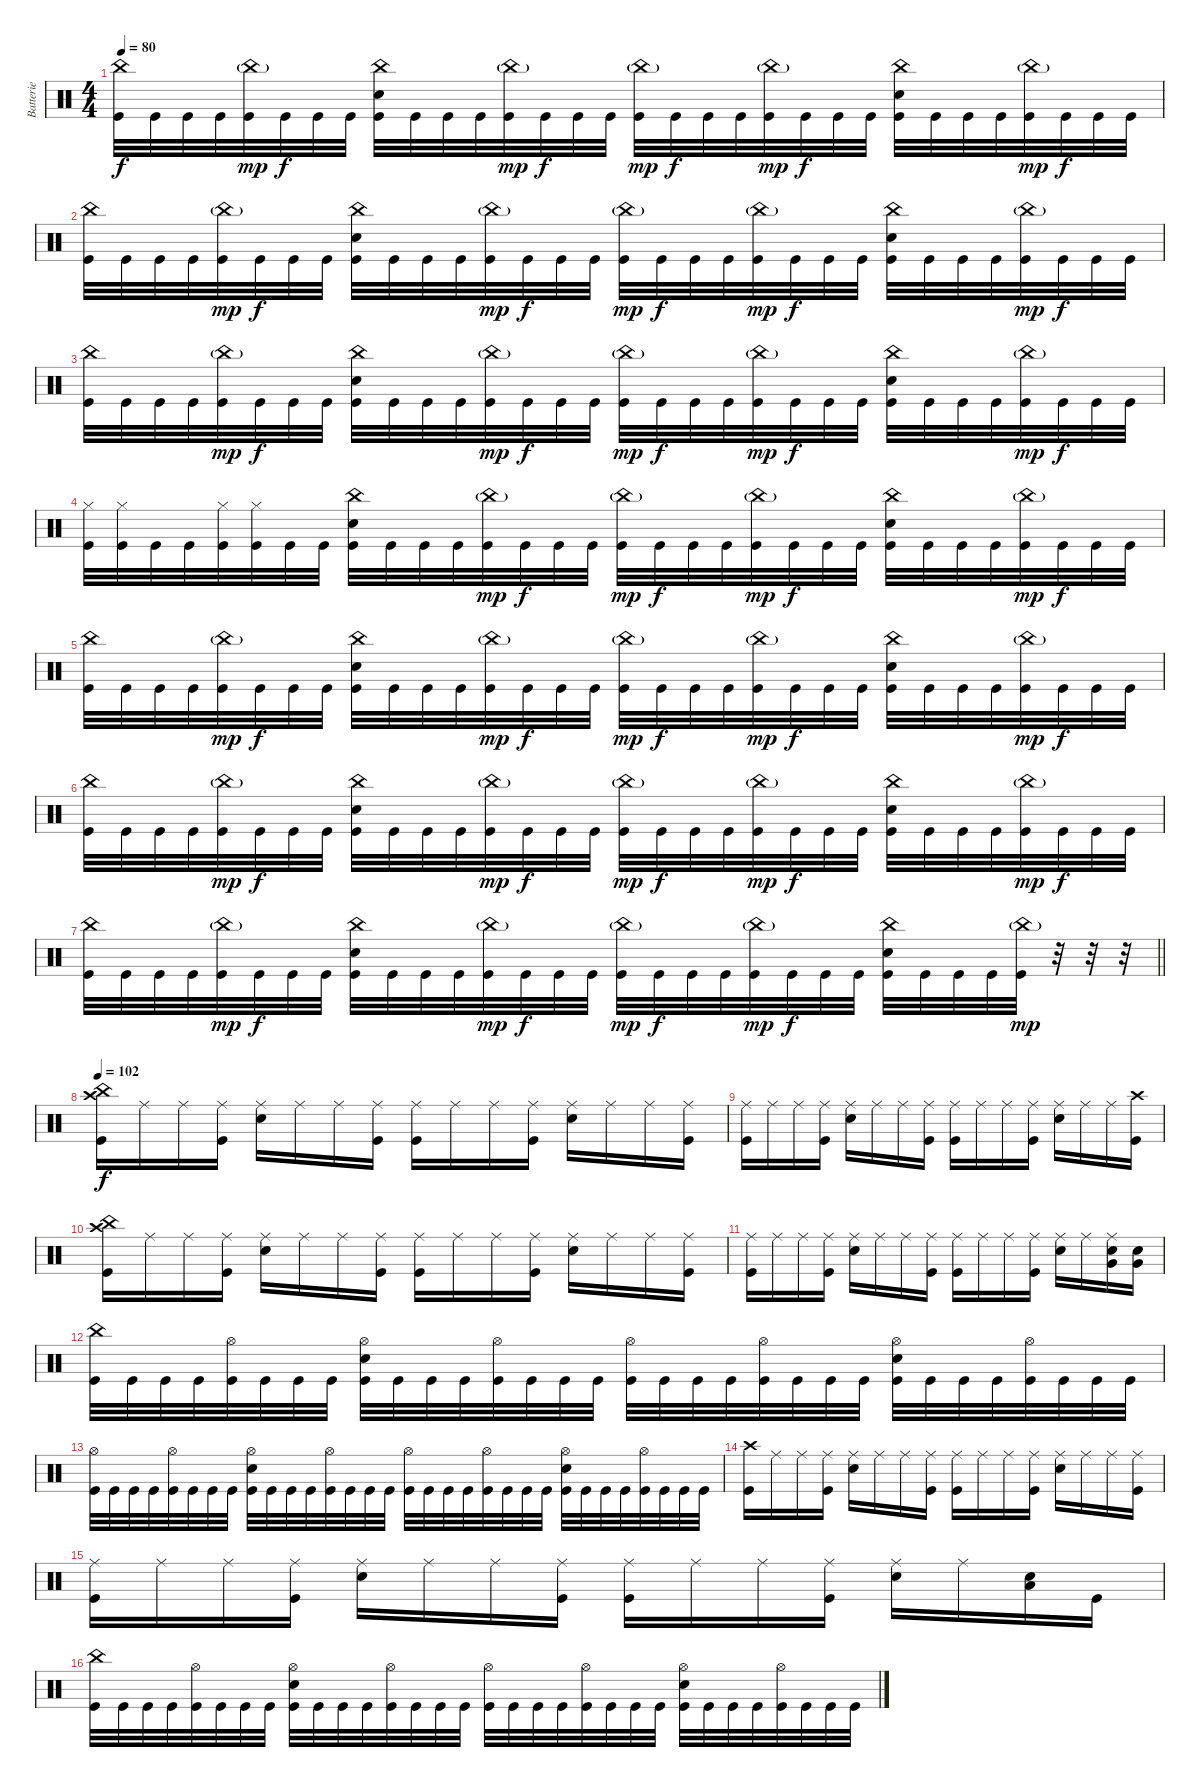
\track ("Batterie" "Batterie") {instrument percussion}
\staff {score}
\articulation defaults
\ts (4 4)
\tempo 80
\clef neutral
\ks c
("China (hit)" "Kick (hit)").32{dy f} "Kick (hit)".32 "Kick (hit)".32 "Kick (hit)".32 ("China (hit)"{g} "Kick (hit)").32{dy mp} "Kick (hit)".32{dy f} "Kick (hit)".32 "Kick (hit)".32 ("China (hit)" "Electric Snare (hit)" "Kick (hit)").32 "Kick (hit)".32 "Kick (hit)".32 "Kick (hit)".32 ("China (hit)"{g} "Kick (hit)").32{dy mp} "Kick (hit)".32{dy f} "Kick (hit)".32 "Kick (hit)".32 ("China (hit)"{g} "Kick (hit)").32{dy mp} "Kick (hit)".32{dy f} "Kick (hit)".32 "Kick (hit)".32 ("China (hit)"{g} "Kick (hit)").32{dy mp} "Kick (hit)".32{dy f} "Kick (hit)".32 "Kick (hit)".32 ("China (hit)" "Electric Snare (hit)" "Kick (hit)").32 "Kick (hit)".32 "Kick (hit)".32 "Kick (hit)".32 ("China (hit)"{g} "Kick (hit)").32{dy mp} "Kick (hit)".32{dy f} "Kick (hit)".32 "Kick (hit)".32 |
("China (hit)" "Kick (hit)").32 "Kick (hit)".32 "Kick (hit)".32 "Kick (hit)".32 ("China (hit)"{g} "Kick (hit)").32{dy mp} "Kick (hit)".32{dy f} "Kick (hit)".32 "Kick (hit)".32 ("China (hit)" "Electric Snare (hit)" "Kick (hit)").32 "Kick (hit)".32 "Kick (hit)".32 "Kick (hit)".32 ("China (hit)"{g} "Kick (hit)").32{dy mp} "Kick (hit)".32{dy f} "Kick (hit)".32 "Kick (hit)".32 ("China (hit)"{g} "Kick (hit)").32{dy mp} "Kick (hit)".32{dy f} "Kick (hit)".32 "Kick (hit)".32 ("China (hit)"{g} "Kick (hit)").32{dy mp} "Kick (hit)".32{dy f} "Kick (hit)".32 "Kick (hit)".32 ("China (hit)" "Electric Snare (hit)" "Kick (hit)").32 "Kick (hit)".32 "Kick (hit)".32 "Kick (hit)".32 ("China (hit)"{g} "Kick (hit)").32{dy mp} "Kick (hit)".32{dy f} "Kick (hit)".32 "Kick (hit)".32 |
("China (hit)" "Kick (hit)").32 "Kick (hit)".32 "Kick (hit)".32 "Kick (hit)".32 ("China (hit)"{g} "Kick (hit)").32{dy mp} "Kick (hit)".32{dy f} "Kick (hit)".32 "Kick (hit)".32 ("China (hit)" "Electric Snare (hit)" "Kick (hit)").32 "Kick (hit)".32 "Kick (hit)".32 "Kick (hit)".32 ("China (hit)"{g} "Kick (hit)").32{dy mp} "Kick (hit)".32{dy f} "Kick (hit)".32 "Kick (hit)".32 ("China (hit)"{g} "Kick (hit)").32{dy mp} "Kick (hit)".32{dy f} "Kick (hit)".32 "Kick (hit)".32 ("China (hit)"{g} "Kick (hit)").32{dy mp} "Kick (hit)".32{dy f} "Kick (hit)".32 "Kick (hit)".32 ("China (hit)" "Electric Snare (hit)" "Kick (hit)").32 "Kick (hit)".32 "Kick (hit)".32 "Kick (hit)".32 ("China (hit)"{g} "Kick (hit)").32{dy mp} "Kick (hit)".32{dy f} "Kick (hit)".32 "Kick (hit)".32 |
("Hi-Hat (closed)" "Kick (hit)").32 ("Hi-Hat (closed)" "Kick (hit)").32 "Kick (hit)".32 "Kick (hit)".32 ("Hi-Hat (closed)" "Kick (hit)").32 ("Hi-Hat (closed)" "Kick (hit)").32 "Kick (hit)".32 "Kick (hit)".32 ("China (hit)" "Electric Snare (hit)" "Kick (hit)").32 "Kick (hit)".32 "Kick (hit)".32 "Kick (hit)".32 ("China (hit)"{g} "Kick (hit)").32{dy mp} "Kick (hit)".32{dy f} "Kick (hit)".32 "Kick (hit)".32 ("China (hit)"{g} "Kick (hit)").32{dy mp} "Kick (hit)".32{dy f} "Kick (hit)".32 "Kick (hit)".32 ("China (hit)"{g} "Kick (hit)").32{dy mp} "Kick (hit)".32{dy f} "Kick (hit)".32 "Kick (hit)".32 ("China (hit)" "Electric Snare (hit)" "Kick (hit)").32 "Kick (hit)".32 "Kick (hit)".32 "Kick (hit)".32 ("China (hit)"{g} "Kick (hit)").32{dy mp} "Kick (hit)".32{dy f} "Kick (hit)".32 "Kick (hit)".32 |
("China (hit)" "Kick (hit)").32 "Kick (hit)".32 "Kick (hit)".32 "Kick (hit)".32 ("China (hit)"{g} "Kick (hit)").32{dy mp} "Kick (hit)".32{dy f} "Kick (hit)".32 "Kick (hit)".32 ("China (hit)" "Electric Snare (hit)" "Kick (hit)").32 "Kick (hit)".32 "Kick (hit)".32 "Kick (hit)".32 ("China (hit)"{g} "Kick (hit)").32{dy mp} "Kick (hit)".32{dy f} "Kick (hit)".32 "Kick (hit)".32 ("China (hit)"{g} "Kick (hit)").32{dy mp} "Kick (hit)".32{dy f} "Kick (hit)".32 "Kick (hit)".32 ("China (hit)"{g} "Kick (hit)").32{dy mp} "Kick (hit)".32{dy f} "Kick (hit)".32 "Kick (hit)".32 ("China (hit)" "Electric Snare (hit)" "Kick (hit)").32 "Kick (hit)".32 "Kick (hit)".32 "Kick (hit)".32 ("China (hit)"{g} "Kick (hit)").32{dy mp} "Kick (hit)".32{dy f} "Kick (hit)".32 "Kick (hit)".32 |
("China (hit)" "Kick (hit)").32 "Kick (hit)".32 "Kick (hit)".32 "Kick (hit)".32 ("China (hit)"{g} "Kick (hit)").32{dy mp} "Kick (hit)".32{dy f} "Kick (hit)".32 "Kick (hit)".32 ("China (hit)" "Electric Snare (hit)" "Kick (hit)").32 "Kick (hit)".32 "Kick (hit)".32 "Kick (hit)".32 ("China (hit)"{g} "Kick (hit)").32{dy mp} "Kick (hit)".32{dy f} "Kick (hit)".32 "Kick (hit)".32 ("China (hit)"{g} "Kick (hit)").32{dy mp} "Kick (hit)".32{dy f} "Kick (hit)".32 "Kick (hit)".32 ("China (hit)"{g} "Kick (hit)").32{dy mp} "Kick (hit)".32{dy f} "Kick (hit)".32 "Kick (hit)".32 ("China (hit)" "Electric Snare (hit)" "Kick (hit)").32 "Kick (hit)".32 "Kick (hit)".32 "Kick (hit)".32 ("China (hit)"{g} "Kick (hit)").32{dy mp} "Kick (hit)".32{dy f} "Kick (hit)".32 "Kick (hit)".32 |
\barLineRight lightlight
("China (hit)" "Kick (hit)").32 "Kick (hit)".32 "Kick (hit)".32 "Kick (hit)".32 ("China (hit)"{g} "Kick (hit)").32{dy mp} "Kick (hit)".32{dy f} "Kick (hit)".32 "Kick (hit)".32 ("China (hit)" "Electric Snare (hit)" "Kick (hit)").32 "Kick (hit)".32 "Kick (hit)".32 "Kick (hit)".32 ("China (hit)"{g} "Kick (hit)").32{dy mp} "Kick (hit)".32{dy f} "Kick (hit)".32 "Kick (hit)".32 ("China (hit)"{g} "Kick (hit)").32{dy mp} "Kick (hit)".32{dy f} "Kick (hit)".32 "Kick (hit)".32 ("China (hit)"{g} "Kick (hit)").32{dy mp} "Kick (hit)".32{dy f} "Kick (hit)".32 "Kick (hit)".32 ("China (hit)" "Electric Snare (hit)" "Kick (hit)").32 "Kick (hit)".32 "Kick (hit)".32 "Kick (hit)".32 ("China (hit)"{g} "Kick (hit)").32{dy mp} r.32 r.32 r.32 |
\tempo 102
("Crash high (hit)" "China (hit)" "Kick (hit)").16{dy f} "Ride (middle)".16 "Ride (middle)".16 ("Ride (middle)" "Kick (hit)").16 ("Ride (middle)" "Electric Snare (hit)").16 "Ride (middle)".16 "Ride (middle)".16 ("Ride (middle)" "Kick (hit)").16 ("Ride (middle)" "Kick (hit)").16 "Ride (middle)".16 "Ride (middle)".16 ("Ride (middle)" "Kick (hit)").16 ("Ride (middle)" "Electric Snare (hit)").16 "Ride (middle)".16 "Ride (middle)".16 ("Ride (middle)" "Kick (hit)").16 |
("Ride (middle)" "Kick (hit)").16 "Ride (middle)".16 "Ride (middle)".16 ("Ride (middle)" "Kick (hit)").16 ("Ride (middle)" "Electric Snare (hit)").16 "Ride (middle)".16 "Ride (middle)".16 ("Ride (middle)" "Kick (hit)").16 ("Ride (middle)" "Kick (hit)").16 "Ride (middle)".16 "Ride (middle)".16 ("Ride (middle)" "Kick (hit)").16 ("Ride (middle)" "Electric Snare (hit)").16 "Ride (middle)".16 "Ride (middle)".16 ("Crash high (hit)" "Kick (hit)").16 |
("Crash high (hit)" "China (hit)" "Kick (hit)").16 "Ride (middle)".16 "Ride (middle)".16 ("Ride (middle)" "Kick (hit)").16 ("Ride (middle)" "Electric Snare (hit)").16 "Ride (middle)".16 "Ride (middle)".16 ("Ride (middle)" "Kick (hit)").16 ("Ride (middle)" "Kick (hit)").16 "Ride (middle)".16 "Ride (middle)".16 ("Ride (middle)" "Kick (hit)").16 ("Ride (middle)" "Electric Snare (hit)").16 "Ride (middle)".16 "Ride (middle)".16 ("Ride (middle)" "Kick (hit)").16 |
("Ride (middle)" "Kick (hit)").16 "Ride (middle)".16 "Ride (middle)".16 ("Ride (middle)" "Kick (hit)").16 ("Ride (middle)" "Electric Snare (hit)").16 "Ride (middle)".16 "Ride (middle)".16 ("Ride (middle)" "Kick (hit)").16 ("Ride (middle)" "Kick (hit)").16 "Ride (middle)".16 "Ride (middle)".16 ("Ride (middle)" "Kick (hit)").16 ("Ride (middle)" "Electric Snare (hit)").16 "Ride (middle)".16 ("Ride (middle)" "Electric Snare (hit)" "Very Low Tom (hit)").16 ("Electric Snare (hit)" "Very Low Tom (hit)").16 |
("China (hit)" "Kick (hit)").32 "Kick (hit)".32 "Kick (hit)".32 "Kick (hit)".32 ("Hi-Hat (open)" "Kick (hit)").32 "Kick (hit)".32 "Kick (hit)".32 "Kick (hit)".32 ("Hi-Hat (open)" "Electric Snare (hit)" "Kick (hit)").32 "Kick (hit)".32 "Kick (hit)".32 "Kick (hit)".32 ("Hi-Hat (open)" "Kick (hit)").32 "Kick (hit)".32 "Kick (hit)".32 "Kick (hit)".32 ("Hi-Hat (open)" "Kick (hit)").32 "Kick (hit)".32 "Kick (hit)".32 "Kick (hit)".32 ("Hi-Hat (open)" "Kick (hit)").32 "Kick (hit)".32 "Kick (hit)".32 "Kick (hit)".32 ("Hi-Hat (open)" "Electric Snare (hit)" "Kick (hit)").32 "Kick (hit)".32 "Kick (hit)".32 "Kick (hit)".32 ("Hi-Hat (open)" "Kick (hit)").32 "Kick (hit)".32 "Kick (hit)".32 "Kick (hit)".32 |
("Hi-Hat (open)" "Kick (hit)").32 "Kick (hit)".32 "Kick (hit)".32 "Kick (hit)".32 ("Hi-Hat (open)" "Kick (hit)").32 "Kick (hit)".32 "Kick (hit)".32 "Kick (hit)".32 ("Hi-Hat (open)" "Electric Snare (hit)" "Kick (hit)").32 "Kick (hit)".32 "Kick (hit)".32 "Kick (hit)".32 ("Hi-Hat (open)" "Kick (hit)").32 "Kick (hit)".32 "Kick (hit)".32 "Kick (hit)".32 ("Hi-Hat (open)" "Kick (hit)").32 "Kick (hit)".32 "Kick (hit)".32 "Kick (hit)".32 ("Hi-Hat (open)" "Kick (hit)").32 "Kick (hit)".32 "Kick (hit)".32 "Kick (hit)".32 ("Hi-Hat (open)" "Electric Snare (hit)" "Kick (hit)").32 "Kick (hit)".32 "Kick (hit)".32 "Kick (hit)".32 ("Hi-Hat (open)" "Kick (hit)").32 "Kick (hit)".32 "Kick (hit)".32 "Kick (hit)".32 |
("Crash high (hit)" "Kick (hit)").16 "Ride (middle)".16 "Ride (middle)".16 ("Ride (middle)" "Kick (hit)").16 ("Ride (middle)" "Electric Snare (hit)").16 "Ride (middle)".16 "Ride (middle)".16 ("Ride (middle)" "Kick (hit)").16 ("Ride (middle)" "Kick (hit)").16 "Ride (middle)".16 "Ride (middle)".16 ("Ride (middle)" "Kick (hit)").16 ("Ride (middle)" "Electric Snare (hit)").16 "Ride (middle)".16 "Ride (middle)".16 ("Ride (middle)" "Kick (hit)").16 |
("Ride (middle)" "Kick (hit)").16 "Ride (middle)".16 "Ride (middle)".16 ("Ride (middle)" "Kick (hit)").16 ("Ride (middle)" "Electric Snare (hit)").16 "Ride (middle)".16 "Ride (middle)".16 ("Ride (middle)" "Kick (hit)").16 ("Ride (middle)" "Kick (hit)").16 "Ride (middle)".16 "Ride (middle)".16 ("Ride (middle)" "Kick (hit)").16 ("Ride (middle)" "Electric Snare (hit)").16 "Ride (middle)".16 ("Electric Snare (hit)" "Low Floor Tom (hit)").16 "Kick (hit)".16 |
("China (hit)" "Kick (hit)").32 "Kick (hit)".32 "Kick (hit)".32 "Kick (hit)".32 ("Hi-Hat (open)" "Kick (hit)").32 "Kick (hit)".32 "Kick (hit)".32 "Kick (hit)".32 ("Hi-Hat (open)" "Electric Snare (hit)" "Kick (hit)").32 "Kick (hit)".32 "Kick (hit)".32 "Kick (hit)".32 ("Hi-Hat (open)" "Kick (hit)").32 "Kick (hit)".32 "Kick (hit)".32 "Kick (hit)".32 ("Hi-Hat (open)" "Kick (hit)").32 "Kick (hit)".32 "Kick (hit)".32 "Kick (hit)".32 ("Hi-Hat (open)" "Kick (hit)").32 "Kick (hit)".32 "Kick (hit)".32 "Kick (hit)".32 ("Hi-Hat (open)" "Electric Snare (hit)" "Kick (hit)").32 "Kick (hit)".32 "Kick (hit)".32 "Kick (hit)".32 ("Hi-Hat (open)" "Kick (hit)").32 "Kick (hit)".32 "Kick (hit)".32 "Kick (hit)".32
